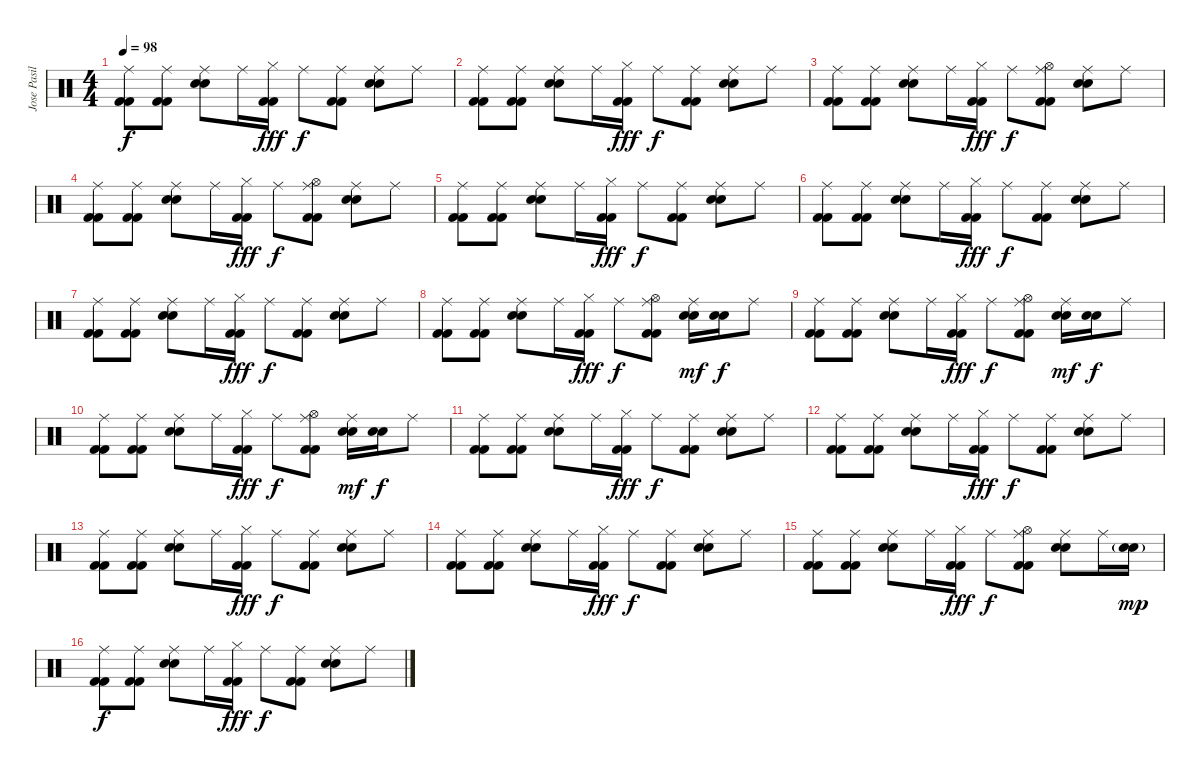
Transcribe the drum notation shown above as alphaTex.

\track ("Jose Pasillas - Drums" "Jose Pasil") {instrument percussion}
\staff {score}
\articulation defaults
\ts (4 4)
\tempo 98
\clef neutral
\ks c
("Ride (middle)" "Kick (hit) 2" "Kick (hit) 2").8{dy f} ("Ride (middle)" "Kick (hit) 2" "Kick (hit) 2").8 ("Ride (middle)" "Electric Snare (hit)" "Electric Snare (hit)").8 "Ride (middle)".16 ("Hi-Hat (closed)" "Kick (hit) 2" "Kick (hit) 2").16{dy fff} "Ride (middle)".8{dy f} ("Ride (middle)" "Kick (hit) 2" "Kick (hit) 2").8 ("Ride (middle)" "Electric Snare (hit)" "Electric Snare (hit)").8 "Ride (middle)".8 |
("Ride (middle)" "Kick (hit) 2" "Kick (hit) 2").8 ("Ride (middle)" "Kick (hit) 2" "Kick (hit) 2").8 ("Ride (middle)" "Electric Snare (hit)" "Electric Snare (hit)").8 "Ride (middle)".16 ("Hi-Hat (closed)" "Kick (hit) 2" "Kick (hit) 2").16{dy fff} "Ride (middle)".8{dy f} ("Ride (middle)" "Kick (hit) 2" "Kick (hit) 2").8 ("Ride (middle)" "Electric Snare (hit)" "Electric Snare (hit)").8 "Ride (middle)".8 |
("Ride (middle)" "Kick (hit) 2" "Kick (hit) 2").8 ("Ride (middle)" "Kick (hit) 2" "Kick (hit) 2").8 ("Ride (middle)" "Electric Snare (hit)" "Electric Snare (hit)").8 "Ride (middle)".16 ("Hi-Hat (closed)" "Kick (hit) 2" "Kick (hit) 2").16{dy fff} "Ride (middle)".8{dy f} ("Ride (middle)" "Hi-Hat (open)" "Kick (hit) 2" "Kick (hit) 2").8 ("Ride (middle)" "Electric Snare (hit)" "Electric Snare (hit)").8 "Ride (middle)".8 |
("Ride (middle)" "Kick (hit) 2" "Kick (hit) 2").8 ("Ride (middle)" "Kick (hit) 2" "Kick (hit) 2").8 ("Ride (middle)" "Electric Snare (hit)" "Electric Snare (hit)").8 "Ride (middle)".16 ("Hi-Hat (closed)" "Kick (hit) 2" "Kick (hit) 2").16{dy fff} "Ride (middle)".8{dy f} ("Ride (middle)" "Hi-Hat (open)" "Kick (hit) 2" "Kick (hit) 2").8 ("Ride (middle)" "Electric Snare (hit)" "Electric Snare (hit)").8 "Ride (middle)".8 |
("Ride (middle)" "Kick (hit) 2" "Kick (hit) 2").8 ("Ride (middle)" "Kick (hit) 2" "Kick (hit) 2").8 ("Ride (middle)" "Electric Snare (hit)" "Electric Snare (hit)").8 "Ride (middle)".16 ("Hi-Hat (closed)" "Kick (hit) 2" "Kick (hit) 2").16{dy fff} "Ride (middle)".8{dy f} ("Ride (middle)" "Kick (hit) 2" "Kick (hit) 2").8 ("Ride (middle)" "Electric Snare (hit)" "Electric Snare (hit)").8 "Ride (middle)".8 |
("Ride (middle)" "Kick (hit) 2" "Kick (hit) 2").8 ("Ride (middle)" "Kick (hit) 2" "Kick (hit) 2").8 ("Ride (middle)" "Electric Snare (hit)" "Electric Snare (hit)").8 "Ride (middle)".16 ("Hi-Hat (closed)" "Kick (hit) 2" "Kick (hit) 2").16{dy fff} "Ride (middle)".8{dy f} ("Ride (middle)" "Kick (hit) 2" "Kick (hit) 2").8 ("Ride (middle)" "Electric Snare (hit)" "Electric Snare (hit)").8 "Ride (middle)".8 |
("Ride (middle)" "Kick (hit) 2" "Kick (hit) 2").8 ("Ride (middle)" "Kick (hit) 2" "Kick (hit) 2").8 ("Ride (middle)" "Electric Snare (hit)" "Electric Snare (hit)").8 "Ride (middle)".16 ("Hi-Hat (closed)" "Kick (hit) 2" "Kick (hit) 2").16{dy fff} "Ride (middle)".8{dy f} ("Ride (middle)" "Kick (hit) 2" "Kick (hit) 2").8 ("Ride (middle)" "Electric Snare (hit)" "Electric Snare (hit)").8 "Ride (middle)".8 |
("Ride (middle)" "Kick (hit) 2" "Kick (hit) 2").8 ("Ride (middle)" "Kick (hit) 2" "Kick (hit) 2").8 ("Ride (middle)" "Electric Snare (hit)" "Electric Snare (hit)").8 "Ride (middle)".16 ("Hi-Hat (closed)" "Kick (hit) 2" "Kick (hit) 2").16{dy fff} "Ride (middle)".8{dy f} ("Ride (middle)" "Hi-Hat (open)" "Kick (hit) 2" "Kick (hit) 2").8 ("Ride (middle)" "Electric Snare (hit)" "Electric Snare (hit)").16{dy mf} ("Electric Snare (hit)" "Electric Snare (hit)").16{dy f} "Ride (middle)".8 |
("Ride (middle)" "Kick (hit) 2" "Kick (hit) 2").8 ("Ride (middle)" "Kick (hit) 2" "Kick (hit) 2").8 ("Ride (middle)" "Electric Snare (hit)" "Electric Snare (hit)").8 "Ride (middle)".16 ("Hi-Hat (closed)" "Kick (hit) 2" "Kick (hit) 2").16{dy fff} "Ride (middle)".8{dy f} ("Ride (middle)" "Hi-Hat (open)" "Kick (hit) 2" "Kick (hit) 2").8 ("Ride (middle)" "Electric Snare (hit)" "Electric Snare (hit)").16{dy mf} ("Electric Snare (hit)" "Electric Snare (hit)").16{dy f} "Ride (middle)".8 |
("Ride (middle)" "Kick (hit) 2" "Kick (hit) 2").8 ("Ride (middle)" "Kick (hit) 2" "Kick (hit) 2").8 ("Ride (middle)" "Electric Snare (hit)" "Electric Snare (hit)").8 "Ride (middle)".16 ("Hi-Hat (closed)" "Kick (hit) 2" "Kick (hit) 2").16{dy fff} "Ride (middle)".8{dy f} ("Ride (middle)" "Hi-Hat (open)" "Kick (hit) 2" "Kick (hit) 2").8 ("Ride (middle)" "Electric Snare (hit)" "Electric Snare (hit)").16{dy mf} ("Electric Snare (hit)" "Electric Snare (hit)").16{dy f} "Ride (middle)".8 |
("Ride (middle)" "Kick (hit) 2" "Kick (hit) 2").8 ("Ride (middle)" "Kick (hit) 2" "Kick (hit) 2").8 ("Ride (middle)" "Electric Snare (hit)" "Electric Snare (hit)").8 "Ride (middle)".16 ("Hi-Hat (closed)" "Kick (hit) 2" "Kick (hit) 2").16{dy fff} "Ride (middle)".8{dy f} ("Ride (middle)" "Kick (hit) 2" "Kick (hit) 2").8 ("Ride (middle)" "Electric Snare (hit)" "Electric Snare (hit)").8 "Ride (middle)".8 |
("Ride (middle)" "Kick (hit) 2" "Kick (hit) 2").8 ("Ride (middle)" "Kick (hit) 2" "Kick (hit) 2").8 ("Ride (middle)" "Electric Snare (hit)" "Electric Snare (hit)").8 "Ride (middle)".16 ("Hi-Hat (closed)" "Kick (hit) 2" "Kick (hit) 2").16{dy fff} "Ride (middle)".8{dy f} ("Ride (middle)" "Kick (hit) 2" "Kick (hit) 2").8 ("Ride (middle)" "Electric Snare (hit)" "Electric Snare (hit)").8 "Ride (middle)".8 |
("Ride (middle)" "Kick (hit) 2" "Kick (hit) 2").8 ("Ride (middle)" "Kick (hit) 2" "Kick (hit) 2").8 ("Ride (middle)" "Electric Snare (hit)" "Electric Snare (hit)").8 "Ride (middle)".16 ("Hi-Hat (closed)" "Kick (hit) 2" "Kick (hit) 2").16{dy fff} "Ride (middle)".8{dy f} ("Ride (middle)" "Kick (hit) 2" "Kick (hit) 2").8 ("Ride (middle)" "Electric Snare (hit)" "Electric Snare (hit)").8 "Ride (middle)".8 |
("Ride (middle)" "Kick (hit) 2" "Kick (hit) 2").8 ("Ride (middle)" "Kick (hit) 2" "Kick (hit) 2").8 ("Ride (middle)" "Electric Snare (hit)" "Electric Snare (hit)").8 "Ride (middle)".16 ("Hi-Hat (closed)" "Kick (hit) 2" "Kick (hit) 2").16{dy fff} "Ride (middle)".8{dy f} ("Ride (middle)" "Kick (hit) 2" "Kick (hit) 2").8 ("Ride (middle)" "Electric Snare (hit)" "Electric Snare (hit)").8 "Ride (middle)".8 |
("Ride (middle)" "Kick (hit) 2" "Kick (hit) 2").8 ("Ride (middle)" "Kick (hit) 2" "Kick (hit) 2").8 ("Ride (middle)" "Electric Snare (hit)" "Electric Snare (hit)").8 "Ride (middle)".16 ("Hi-Hat (closed)" "Kick (hit) 2" "Kick (hit) 2").16{dy fff} "Ride (middle)".8{dy f} ("Ride (middle)" "Hi-Hat (open)" "Kick (hit) 2" "Kick (hit) 2").8 ("Ride (middle)" "Electric Snare (hit)" "Electric Snare (hit)").8 "Ride (middle)".16 ("Electric Snare (hit)"{g} "Electric Snare (hit)"{g}).16{dy mp} |
("Ride (middle)" "Kick (hit) 2" "Kick (hit) 2").8{dy f} ("Ride (middle)" "Kick (hit) 2" "Kick (hit) 2").8 ("Ride (middle)" "Electric Snare (hit)" "Electric Snare (hit)").8 "Ride (middle)".16 ("Hi-Hat (closed)" "Kick (hit) 2" "Kick (hit) 2").16{dy fff} "Ride (middle)".8{dy f} ("Ride (middle)" "Kick (hit) 2" "Kick (hit) 2").8 ("Ride (middle)" "Electric Snare (hit)" "Electric Snare (hit)").8 "Ride (middle)".8
